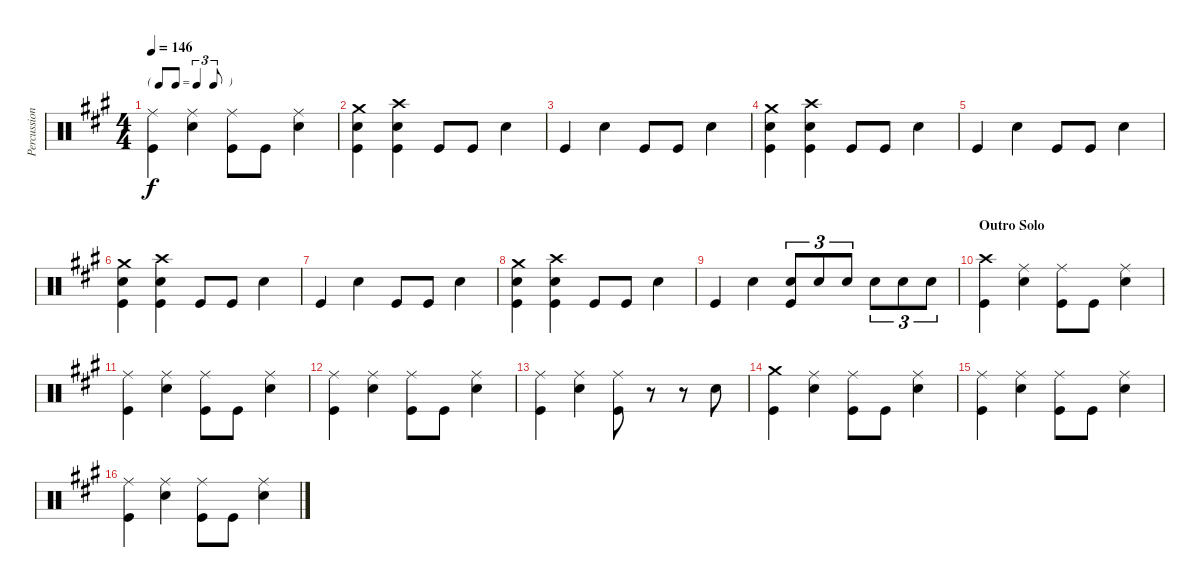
\track ("Percussion" "Percussion") {instrument percussion}
\staff {score}
\articulation defaults
\ts (4 4)
\tf triplet8th
\tempo 146
\clef neutral
\ks a
("Ride (middle)" "Kick (hit)").4{dy f} ("Ride (middle)" "Snare (hit) 2").4 ("Ride (middle)" "Kick (hit)").8 "Kick (hit)".8 ("Ride (middle)" "Snare (hit) 2").4 |
("Crash medium (hit)" "Snare (hit) 2" "Kick (hit)").4 ("Crash high (hit)" "Snare (hit) 2" "Kick (hit)").4 "Kick (hit)".8 "Kick (hit)".8 "Snare (hit) 2".4 |
"Kick (hit)".4 "Snare (hit) 2".4 "Kick (hit)".8 "Kick (hit)".8 "Snare (hit) 2".4 |
("Crash medium (hit)" "Snare (hit) 2" "Kick (hit)").4 ("Crash high (hit)" "Snare (hit) 2" "Kick (hit)").4 "Kick (hit)".8 "Kick (hit)".8 "Snare (hit) 2".4 |
"Kick (hit)".4 "Snare (hit) 2".4 "Kick (hit)".8 "Kick (hit)".8 "Snare (hit) 2".4 |
("Crash medium (hit)" "Snare (hit) 2" "Kick (hit)").4 ("Crash high (hit)" "Snare (hit) 2" "Kick (hit)").4 "Kick (hit)".8 "Kick (hit)".8 "Snare (hit) 2".4 |
"Kick (hit)".4 "Snare (hit) 2".4 "Kick (hit)".8 "Kick (hit)".8 "Snare (hit) 2".4 |
("Crash medium (hit)" "Snare (hit) 2" "Kick (hit)").4 ("Crash high (hit)" "Snare (hit) 2" "Kick (hit)").4 "Kick (hit)".8 "Kick (hit)".8 "Snare (hit) 2".4 |
"Kick (hit)".4 "Snare (hit) 2".4 ("Snare (hit) 2" "Kick (hit)").8{tu (3 2)} "Snare (hit) 2".8{tu (3 2)} "Snare (hit) 2".8{tu (3 2)} "Snare (hit) 2".8{tu (3 2)} "Snare (hit) 2".8{tu (3 2)} "Snare (hit) 2".8{tu (3 2)} |
\section ("" "Outro Solo")
("Crash high (hit)" "Kick (hit)").4 ("Ride (middle)" "Snare (hit) 2").4 ("Ride (middle)" "Kick (hit)").8 "Kick (hit)".8 ("Ride (middle)" "Snare (hit) 2").4 |
("Ride (middle)" "Kick (hit)").4 ("Ride (middle)" "Snare (hit) 2").4 ("Ride (middle)" "Kick (hit)").8 "Kick (hit)".8 ("Ride (middle)" "Snare (hit) 2").4 |
("Ride (middle)" "Kick (hit)").4 ("Ride (middle)" "Snare (hit) 2").4 ("Ride (middle)" "Kick (hit)").8 "Kick (hit)".8 ("Ride (middle)" "Snare (hit) 2").4 |
("Ride (middle)" "Kick (hit)").4 ("Ride (middle)" "Snare (hit) 2").4 ("Ride (middle)" "Kick (hit)").8 r.8 r.8 "Snare (hit) 2".8 |
("Crash medium (hit)" "Kick (hit)").4 ("Ride (middle)" "Snare (hit) 2").4 ("Ride (middle)" "Kick (hit)").8 "Kick (hit)".8 ("Ride (middle)" "Snare (hit) 2").4 |
("Ride (middle)" "Kick (hit)").4 ("Ride (middle)" "Snare (hit) 2").4 ("Ride (middle)" "Kick (hit)").8 "Kick (hit)".8 ("Ride (middle)" "Snare (hit) 2").4 |
("Ride (middle)" "Kick (hit)").4 ("Ride (middle)" "Snare (hit) 2").4 ("Ride (middle)" "Kick (hit)").8 "Kick (hit)".8 ("Ride (middle)" "Snare (hit) 2").4
